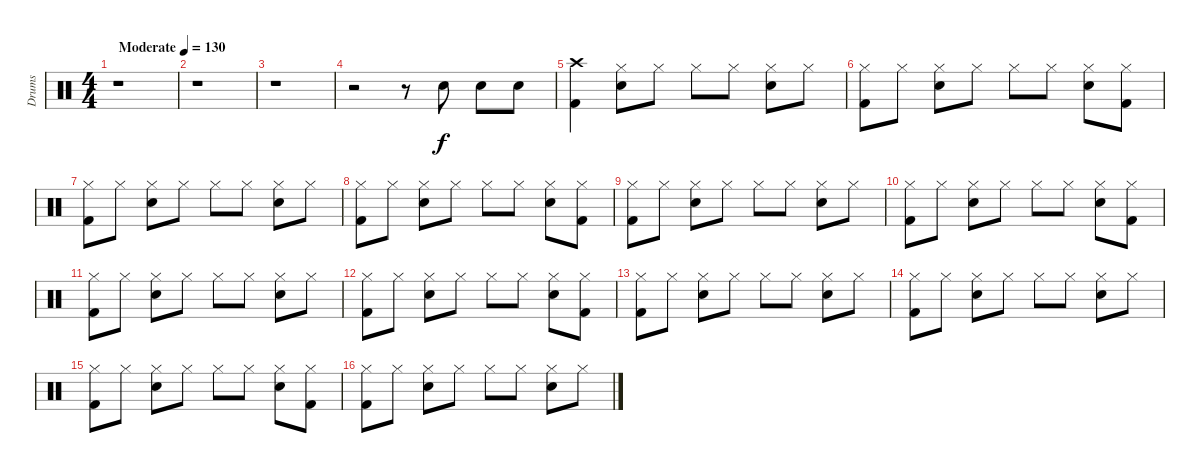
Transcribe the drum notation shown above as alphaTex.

\track ("Drums" "Drums") {instrument percussion}
\staff {score}
\articulation defaults
\ts (4 4)
\tempo (130 "Moderate")
\clef neutral
\ks c
r.1{dy f} |
r.1 |
r.1 |
r.2 r.8 "Snare (hit) 2".8 "Snare (hit) 2".8 "Snare (hit) 2".8 |
("Crash high (hit)" "Kick (hit) 2").4 ("Hi-Hat (closed)" "Snare (hit) 2").8 "Hi-Hat (closed)".8 "Hi-Hat (closed)".8 "Hi-Hat (closed)".8 ("Hi-Hat (closed)" "Snare (hit) 2").8 "Hi-Hat (closed)".8 |
("Hi-Hat (closed)" "Kick (hit) 2").8 "Hi-Hat (closed)".8 ("Hi-Hat (closed)" "Snare (hit) 2").8 "Hi-Hat (closed)".8 "Hi-Hat (closed)".8 "Hi-Hat (closed)".8 ("Hi-Hat (closed)" "Snare (hit) 2").8 ("Hi-Hat (closed)" "Kick (hit) 2").8 |
("Hi-Hat (closed)" "Kick (hit) 2").8 "Hi-Hat (closed)".8 ("Hi-Hat (closed)" "Snare (hit) 2").8 "Hi-Hat (closed)".8 "Hi-Hat (closed)".8 "Hi-Hat (closed)".8 ("Hi-Hat (closed)" "Snare (hit) 2").8 "Hi-Hat (closed)".8 |
("Hi-Hat (closed)" "Kick (hit) 2").8 "Hi-Hat (closed)".8 ("Hi-Hat (closed)" "Snare (hit) 2").8 "Hi-Hat (closed)".8 "Hi-Hat (closed)".8 "Hi-Hat (closed)".8 ("Hi-Hat (closed)" "Snare (hit) 2").8 ("Hi-Hat (closed)" "Kick (hit) 2").8 |
("Hi-Hat (closed)" "Kick (hit) 2").8 "Hi-Hat (closed)".8 ("Hi-Hat (closed)" "Snare (hit) 2").8 "Hi-Hat (closed)".8 "Hi-Hat (closed)".8 "Hi-Hat (closed)".8 ("Hi-Hat (closed)" "Snare (hit) 2").8 "Hi-Hat (closed)".8 |
("Hi-Hat (closed)" "Kick (hit) 2").8 "Hi-Hat (closed)".8 ("Hi-Hat (closed)" "Snare (hit) 2").8 "Hi-Hat (closed)".8 "Hi-Hat (closed)".8 "Hi-Hat (closed)".8 ("Hi-Hat (closed)" "Snare (hit) 2").8 ("Hi-Hat (closed)" "Kick (hit) 2").8 |
("Hi-Hat (closed)" "Kick (hit) 2").8 "Hi-Hat (closed)".8 ("Hi-Hat (closed)" "Snare (hit) 2").8 "Hi-Hat (closed)".8 "Hi-Hat (closed)".8 "Hi-Hat (closed)".8 ("Hi-Hat (closed)" "Snare (hit) 2").8 "Hi-Hat (closed)".8 |
("Hi-Hat (closed)" "Kick (hit) 2").8 "Hi-Hat (closed)".8 ("Hi-Hat (closed)" "Snare (hit) 2").8 "Hi-Hat (closed)".8 "Hi-Hat (closed)".8 "Hi-Hat (closed)".8 ("Hi-Hat (closed)" "Snare (hit) 2").8 ("Hi-Hat (closed)" "Kick (hit) 2").8 |
("Hi-Hat (closed)" "Kick (hit) 2").8 "Hi-Hat (closed)".8 ("Hi-Hat (closed)" "Snare (hit) 2").8 "Hi-Hat (closed)".8 "Hi-Hat (closed)".8 "Hi-Hat (closed)".8 ("Hi-Hat (closed)" "Snare (hit) 2").8 "Hi-Hat (closed)".8 |
("Hi-Hat (closed)" "Kick (hit) 2").8 "Hi-Hat (closed)".8 ("Hi-Hat (closed)" "Snare (hit) 2").8 "Hi-Hat (closed)".8 "Hi-Hat (closed)".8 "Hi-Hat (closed)".8 ("Hi-Hat (closed)" "Snare (hit) 2").8 "Hi-Hat (closed)".8 |
("Hi-Hat (closed)" "Kick (hit) 2").8 "Hi-Hat (closed)".8 ("Hi-Hat (closed)" "Snare (hit) 2").8 "Hi-Hat (closed)".8 "Hi-Hat (closed)".8 "Hi-Hat (closed)".8 ("Hi-Hat (closed)" "Snare (hit) 2").8 ("Hi-Hat (closed)" "Kick (hit) 2").8 |
("Hi-Hat (closed)" "Kick (hit) 2").8 "Hi-Hat (closed)".8 ("Hi-Hat (closed)" "Snare (hit) 2").8 "Hi-Hat (closed)".8 "Hi-Hat (closed)".8 "Hi-Hat (closed)".8 ("Hi-Hat (closed)" "Snare (hit) 2").8 "Hi-Hat (closed)".8
